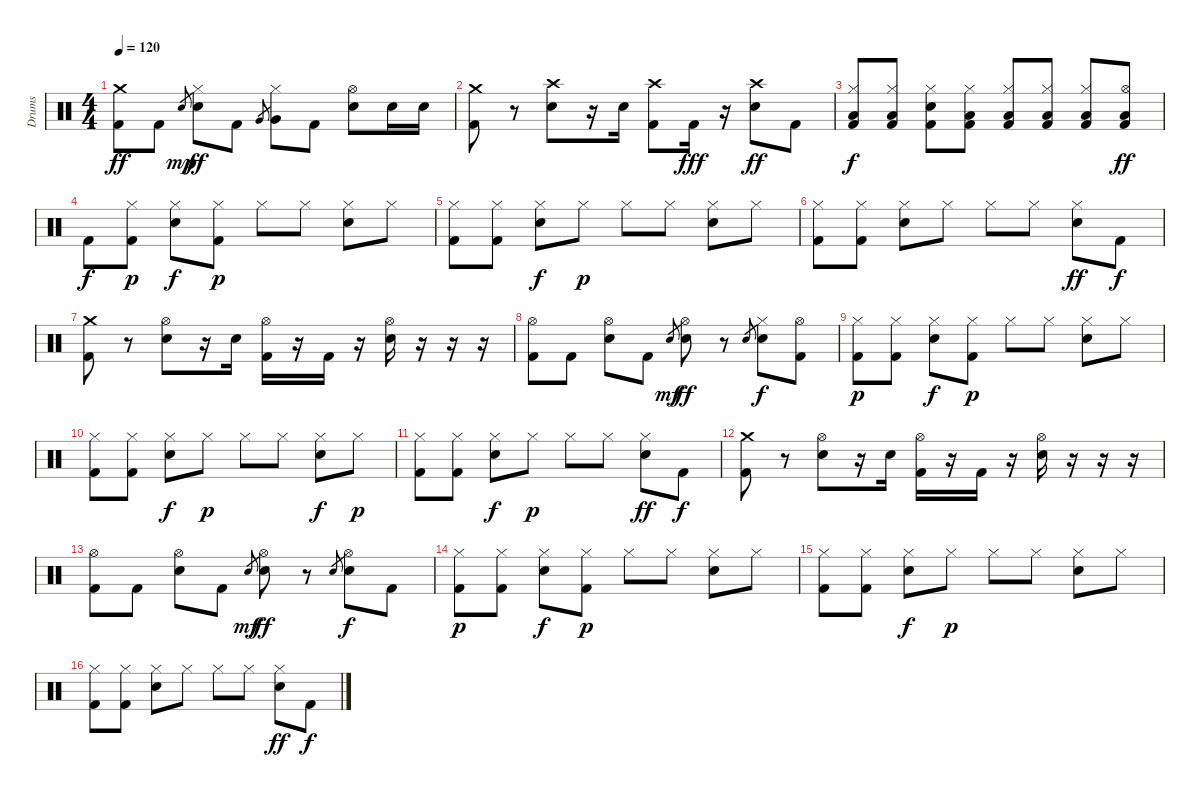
\track ("Drums" "Drums") {instrument percussion}
\staff {score}
\articulation defaults
\ts (4 4)
\tempo 120
\clef neutral
\ks c
("Crash medium (hit)" "Kick (hit) 2").8{dy ff} "Kick (hit) 2".8 "Snare (hit) 2".8{gr dy mp} ("Hi-Hat (closed)" "Snare (hit) 2").8{dy ff} "Kick (hit) 2".8 "Very Low Tom (hit)".8{gr} ("Hi-Hat (closed)" "Very Low Tom (hit)").8 "Kick (hit) 2".8 ("Hi-Hat (open)" "Snare (hit) 2").8 "Snare (hit) 2".16 "Snare (hit) 2".16 |
("Crash medium (hit)" "Kick (hit) 2").8 r.8 ("Crash high (hit)" "Snare (hit) 2").8 r.16 "Snare (hit) 2".16 ("Crash high (hit)" "Kick (hit) 2").8 "Kick (hit) 2".16{dy fff} r.16 ("Crash high (hit)" "Snare (hit) 2").8{dy ff} "Kick (hit) 2".8 |
("Hi-Hat (closed)" "Low Floor Tom (hit)" "Kick (hit) 2").8{dy f} ("Hi-Hat (closed)" "Low Floor Tom (hit)" "Kick (hit) 2").8 ("Hi-Hat (closed)" "Snare (hit)" "Kick (hit) 2").8 ("Hi-Hat (closed)" "Low Floor Tom (hit)" "Kick (hit) 2").8 ("Hi-Hat (closed)" "Low Floor Tom (hit)" "Kick (hit) 2").8 ("Hi-Hat (closed)" "Low Floor Tom (hit)" "Kick (hit) 2").8 ("Hi-Hat (closed)" "Low Floor Tom (hit)" "Kick (hit) 2").8 ("Hi-Hat (open)" "Low Floor Tom (hit)" "Kick (hit) 2").8{dy ff} |
"Kick (hit) 2".8{dy f} ("Hi-Hat (closed)" "Kick (hit) 2").8{dy p} ("Hi-Hat (closed)" "Snare (hit) 2").8{dy f} ("Hi-Hat (closed)" "Kick (hit) 2").8{dy p} "Hi-Hat (closed)".8 "Hi-Hat (closed)".8 ("Hi-Hat (closed)" "Snare (hit) 2").8 "Hi-Hat (closed)".8 |
("Hi-Hat (closed)" "Kick (hit) 2").8 ("Hi-Hat (closed)" "Kick (hit) 2").8 ("Hi-Hat (closed)" "Snare (hit) 2").8{dy f} "Hi-Hat (closed)".8{dy p} "Hi-Hat (closed)".8 "Hi-Hat (closed)".8 ("Hi-Hat (closed)" "Snare (hit) 2").8 "Hi-Hat (closed)".8 |
("Hi-Hat (closed)" "Kick (hit) 2").8 ("Hi-Hat (closed)" "Kick (hit) 2").8 ("Hi-Hat (closed)" "Snare (hit) 2").8 "Hi-Hat (closed)".8 "Hi-Hat (closed)".8 "Hi-Hat (closed)".8 ("Hi-Hat (closed)" "Snare (hit) 2").8{dy ff} "Kick (hit) 2".8{dy f} |
("Crash medium (hit)" "Kick (hit) 2").8 r.8 ("Hi-Hat (open)" "Snare (hit) 2").8 r.16 "Snare (hit) 2".16 ("Hi-Hat (open)" "Kick (hit) 2").16 r.16 "Kick (hit) 2".16 r.16 ("Hi-Hat (open)" "Snare (hit) 2").16 r.16 r.16 r.16 |
("Hi-Hat (open)" "Kick (hit) 2").8 "Kick (hit) 2".8 ("Hi-Hat (open)" "Snare (hit) 2").8 "Kick (hit) 2".8 "Snare (hit) 2".8{gr dy mf} ("Hi-Hat (open)" "Snare (hit) 2").8{dy ff} r.8 "Snare (hit) 2".8{gr} ("Hi-Hat (closed)" "Snare (hit) 2").8{dy f} ("Hi-Hat (open)" "Kick (hit) 2").8 |
("Hi-Hat (closed)" "Kick (hit) 2").8{dy p} ("Hi-Hat (closed)" "Kick (hit) 2").8 ("Hi-Hat (closed)" "Snare (hit) 2").8{dy f} ("Hi-Hat (closed)" "Kick (hit) 2").8{dy p} "Hi-Hat (closed)".8 "Hi-Hat (closed)".8 ("Hi-Hat (closed)" "Snare (hit) 2").8 "Hi-Hat (closed)".8 |
("Hi-Hat (closed)" "Kick (hit) 2").8 ("Hi-Hat (closed)" "Kick (hit) 2").8 ("Hi-Hat (closed)" "Snare (hit) 2").8{dy f} "Hi-Hat (closed)".8{dy p} "Hi-Hat (closed)".8 "Hi-Hat (closed)".8 ("Hi-Hat (closed)" "Snare (hit) 2").8{dy f} "Hi-Hat (closed)".8{dy p} |
("Hi-Hat (closed)" "Kick (hit) 2").8 ("Hi-Hat (closed)" "Kick (hit) 2").8 ("Hi-Hat (closed)" "Snare (hit) 2").8{dy f} "Hi-Hat (closed)".8{dy p} "Hi-Hat (closed)".8 "Hi-Hat (closed)".8 ("Hi-Hat (closed)" "Snare (hit) 2").8{dy ff} "Kick (hit) 2".8{dy f} |
("Crash medium (hit)" "Kick (hit) 2").8 r.8 ("Hi-Hat (open)" "Snare (hit) 2").8 r.16 "Snare (hit) 2".16 ("Hi-Hat (open)" "Kick (hit) 2").16 r.16 "Kick (hit) 2".16 r.16 ("Hi-Hat (open)" "Snare (hit) 2").16 r.16 r.16 r.16 |
("Hi-Hat (open)" "Kick (hit) 2").8 "Kick (hit) 2".8 ("Hi-Hat (open)" "Snare (hit) 2").8 "Kick (hit) 2".8 "Snare (hit) 2".8{gr dy mf} ("Hi-Hat (open)" "Snare (hit) 2").8{dy ff} r.8 "Snare (hit) 2".8{gr} ("Hi-Hat (open)" "Snare (hit) 2").8{dy f} "Kick (hit) 2".8 |
("Hi-Hat (closed)" "Kick (hit) 2").8{dy p} ("Hi-Hat (closed)" "Kick (hit) 2").8 ("Hi-Hat (closed)" "Snare (hit) 2").8{dy f} ("Hi-Hat (closed)" "Kick (hit) 2").8{dy p} "Hi-Hat (closed)".8 "Hi-Hat (closed)".8 ("Hi-Hat (closed)" "Snare (hit) 2").8 "Hi-Hat (closed)".8 |
("Hi-Hat (closed)" "Kick (hit) 2").8 ("Hi-Hat (closed)" "Kick (hit) 2").8 ("Hi-Hat (closed)" "Snare (hit) 2").8{dy f} "Hi-Hat (closed)".8{dy p} "Hi-Hat (closed)".8 "Hi-Hat (closed)".8 ("Hi-Hat (closed)" "Snare (hit) 2").8 "Hi-Hat (closed)".8 |
("Hi-Hat (closed)" "Kick (hit) 2").8 ("Hi-Hat (closed)" "Kick (hit) 2").8 ("Hi-Hat (closed)" "Snare (hit) 2").8 "Hi-Hat (closed)".8 "Hi-Hat (closed)".8 "Hi-Hat (closed)".8 ("Hi-Hat (closed)" "Snare (hit) 2").8{dy ff} "Kick (hit) 2".8{dy f}
